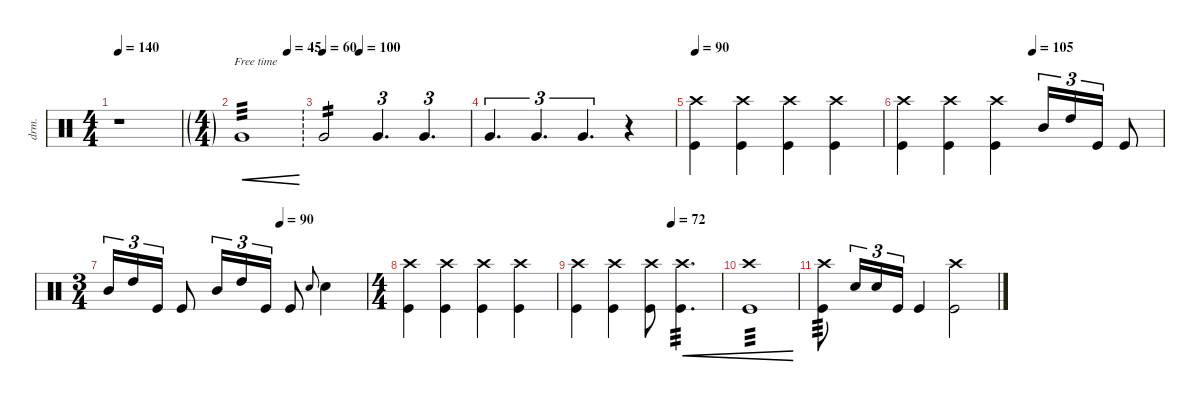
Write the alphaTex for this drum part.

\defaultSystemsLayout 4
\hideDynamics
\bracketExtendMode nobrackets
\otherSystemsTrackNameOrientation horizontal
\track ("Drums" "drm.") {multiBarRest instrument percussion}
\staff
\articulation defaults
\ts (4 4)
\tempo 140
\clef neutral
\ks c
r.1{dy p} |
\ft
\tempo (100 hide)
\tempo (45 0.75)
"Very Low Tom (hit)".1{tp 3 cre dy mf} |
\tempo 60
\tempo (100 0.25)
"Very Low Tom (hit)".2{tp 2 dy f} "Very Low Tom (hit)".4{d tu (3 2) dy ff} "Very Low Tom (hit)".4{d tu (3 2)} |
"Very Low Tom (hit)".4{d tu (3 2)} "Very Low Tom (hit)".4{d tu (3 2)} "Very Low Tom (hit)".4{d tu (3 2)} r.4 |
\tempo 90
("Kick (hit)" "Crash high (hit)").4{dy f} ("Kick (hit)" "Crash high (hit)").4 ("Kick (hit)" "Crash high (hit)").4 ("Kick (hit)" "Crash high (hit)").4 |
\tempo (105 0.5)
("Kick (hit)" "Crash high (hit)").4 ("Kick (hit)" "Crash high (hit)").4 ("Kick (hit)" "Crash high (hit)").4 "Mid Tom (hit)".16{tu (3 2) dy mf} "High Tom (hit)".16{tu (3 2)} "Kick (hit)".16{tu (3 2) dy f} "Kick (hit)".8 |
\ts (3 4)
\beaming (8 2 2 2)
\tempo (90 0.666667)
"Mid Tom (hit)".16{tu (3 2) dy ff} "High Tom (hit)".16{tu (3 2)} "Kick (hit)".16{tu (3 2) dy f} "Kick (hit)".8 "Mid Tom (hit)".16{tu (3 2) dy ff} "High Tom (hit)".16{tu (3 2)} "Kick (hit)".16{tu (3 2) dy f} "Kick (hit)".8 "Snare (hit) 2".8{gr onbeat} "Snare (hit) 2".4 |
\ts (4 4)
\beaming (8 2 2 2 2)
("Kick (hit)" "Crash high (hit)").4 ("Kick (hit)" "Crash high (hit)").4 ("Kick (hit)" "Crash high (hit)").4 ("Kick (hit)" "Crash high (hit)").4 |
\tempo (72 0.65625)
("Kick (hit)" "Crash high (hit)").4 ("Kick (hit)" "Crash high (hit)").4 ("Kick (hit)" "Crash high (hit)").8 ("Kick (hit)" "Crash high (hit)").4{d tp 3 cre} |
("Kick (hit)" "Crash high (hit)").1{tp 3 cre} |
("Kick (hit)" "Crash high (hit)").8{tp 3} "Snare (hit) 2".16{tu (3 2)} "Snare (hit) 2".16{tu (3 2)} "Kick (hit)".16{tu (3 2)} "Kick (hit)".4 ("Kick (hit)" "Crash high (hit)").2
